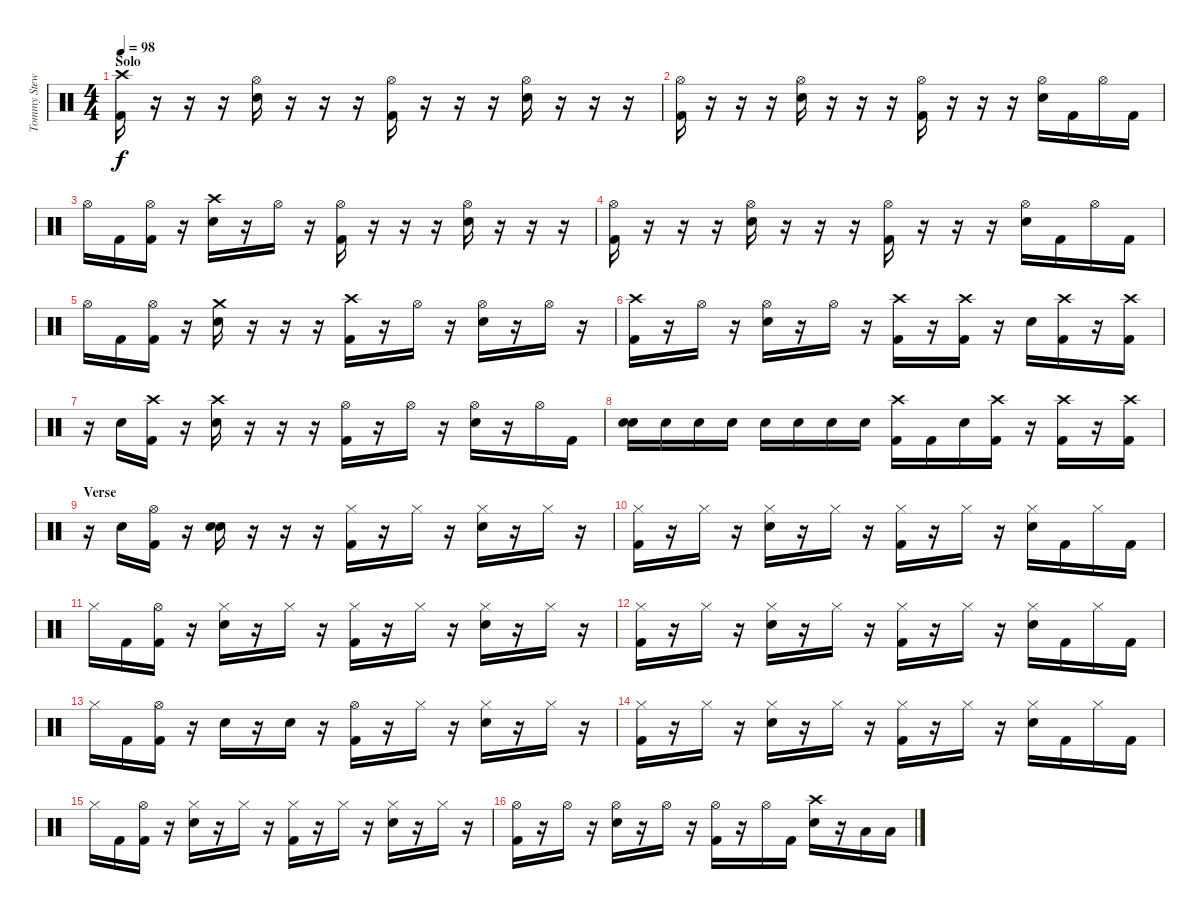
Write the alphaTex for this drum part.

\track ("Tommy Stewart - Drums" "Tommy Stew") {instrument percussion}
\staff {score}
\articulation defaults
\ts (4 4)
\section ("" "Solo")
\tempo 98
\clef neutral
\ks c
("Crash high (hit)" "Kick (hit) 2").16{dy f} r.16 r.16 r.16 ("Hi-Hat (open)" "Snare (hit) 2").16 r.16 r.16 r.16 ("Hi-Hat (open)" "Kick (hit) 2").16 r.16 r.16 r.16 ("Hi-Hat (open)" "Snare (hit) 2").16 r.16 r.16 r.16 |
("Hi-Hat (open)" "Kick (hit) 2").16 r.16 r.16 r.16 ("Hi-Hat (open)" "Snare (hit) 2").16 r.16 r.16 r.16 ("Hi-Hat (open)" "Kick (hit) 2").16 r.16 r.16 r.16 ("Hi-Hat (open)" "Snare (hit) 2").16 "Kick (hit) 2".16 "Hi-Hat (open)".16 "Kick (hit) 2".16 |
"Hi-Hat (open)".16 "Kick (hit) 2".16 ("Hi-Hat (open)" "Kick (hit) 2").16 r.16 ("Crash high (hit)" "Snare (hit) 2").16 r.16 "Hi-Hat (open)".16 r.16 ("Hi-Hat (open)" "Kick (hit) 2").16 r.16 r.16 r.16 ("Hi-Hat (open)" "Snare (hit) 2").16 r.16 r.16 r.16 |
("Hi-Hat (open)" "Kick (hit) 2").16 r.16 r.16 r.16 ("Hi-Hat (open)" "Snare (hit) 2").16 r.16 r.16 r.16 ("Hi-Hat (open)" "Kick (hit) 2").16 r.16 r.16 r.16 ("Hi-Hat (open)" "Snare (hit) 2").16 "Kick (hit) 2".16 "Hi-Hat (open)".16 "Kick (hit) 2".16 |
"Hi-Hat (open)".16 "Kick (hit) 2".16 ("Hi-Hat (open)" "Kick (hit) 2").16 r.16 ("Crash medium (hit)" "Snare (hit) 2").16 r.16 r.16 r.16 ("Crash high (hit)" "Kick (hit) 2").16 r.16 "Hi-Hat (open)".16 r.16 ("Hi-Hat (open)" "Snare (hit) 2").16 r.16 "Hi-Hat (open)".16 r.16 |
("Crash high (hit)" "Kick (hit) 2").16 r.16 "Hi-Hat (open)".16 r.16 ("Hi-Hat (open)" "Snare (hit) 2").16 r.16 "Hi-Hat (open)".16 r.16 ("Crash high (hit)" "Kick (hit) 2").16 r.16 ("Crash high (hit)" "Kick (hit) 2").16 r.16 "Snare (hit) 2".16 ("Crash high (hit)" "Kick (hit) 2").16 r.16 ("Crash high (hit)" "Kick (hit) 2").16 |
r.16 "Snare (hit) 2".16 ("Crash high (hit)" "Kick (hit) 2").16 r.16 ("Crash high (hit)" "Snare (hit) 2").16 r.16 r.16 r.16 ("Hi-Hat (open)" "Kick (hit) 2").16 r.16 "Hi-Hat (open)".16 r.16 ("Hi-Hat (open)" "Snare (hit) 2").16 r.16 "Hi-Hat (open)".16 "Kick (hit) 2".16 |
("Snare (hit) 2" "Snare (hit) 2").16 "Snare (hit) 2".16 "Snare (hit) 2".16 "Snare (hit) 2".16 "Snare (hit) 2".16 "Snare (hit) 2".16 "Snare (hit) 2".16 "Snare (hit) 2".16 ("Crash high (hit)" "Kick (hit) 2").16 "Kick (hit) 2".16 "Snare (hit) 2".16 ("Crash high (hit)" "Kick (hit) 2").16 r.16 ("Crash high (hit)" "Kick (hit) 2").16 r.16 ("Crash high (hit)" "Kick (hit) 2").16 |
\section ("" "Verse")
r.16 "Snare (hit) 2".16 ("Hi-Hat (open)" "Kick (hit) 2").16 r.16 ("Snare (hit) 2" "Snare (hit) 2").16 r.16 r.16 r.16 ("Hi-Hat (closed)" "Kick (hit) 2").16 r.16 "Hi-Hat (closed)".16 r.16 ("Hi-Hat (closed)" "Snare (hit) 2").16 r.16 "Hi-Hat (closed)".16 r.16 |
("Hi-Hat (closed)" "Kick (hit) 2").16 r.16 "Hi-Hat (closed)".16 r.16 ("Hi-Hat (closed)" "Snare (hit) 2").16 r.16 "Hi-Hat (closed)".16 r.16 ("Hi-Hat (closed)" "Kick (hit) 2").16 r.16 "Hi-Hat (closed)".16 r.16 ("Hi-Hat (closed)" "Snare (hit) 2").16 "Kick (hit) 2".16 "Hi-Hat (closed)".16 "Kick (hit) 2".16 |
"Hi-Hat (closed)".16 "Kick (hit) 2".16 ("Hi-Hat (open)" "Kick (hit) 2").16 r.16 ("Hi-Hat (closed)" "Snare (hit) 2").16 r.16 "Hi-Hat (closed)".16 r.16 ("Hi-Hat (closed)" "Kick (hit) 2").16 r.16 "Hi-Hat (closed)".16 r.16 ("Hi-Hat (closed)" "Snare (hit) 2").16 r.16 "Hi-Hat (closed)".16 r.16 |
("Hi-Hat (closed)" "Kick (hit) 2").16 r.16 "Hi-Hat (closed)".16 r.16 ("Hi-Hat (closed)" "Snare (hit) 2").16 r.16 "Hi-Hat (closed)".16 r.16 ("Hi-Hat (closed)" "Kick (hit) 2").16 r.16 "Hi-Hat (closed)".16 r.16 ("Hi-Hat (closed)" "Snare (hit) 2").16 "Kick (hit) 2".16 "Hi-Hat (closed)".16 "Kick (hit) 2".16 |
"Hi-Hat (closed)".16 "Kick (hit) 2".16 ("Hi-Hat (open)" "Kick (hit) 2").16 r.16 "Snare (hit) 2".16 r.16 "Snare (hit) 2".16 r.16 ("Hi-Hat (open)" "Kick (hit) 2").16 r.16 "Hi-Hat (closed)".16 r.16 ("Hi-Hat (closed)" "Snare (hit) 2").16 r.16 "Hi-Hat (closed)".16 r.16 |
("Hi-Hat (closed)" "Kick (hit) 2").16 r.16 "Hi-Hat (closed)".16 r.16 ("Hi-Hat (closed)" "Snare (hit) 2").16 r.16 "Hi-Hat (closed)".16 r.16 ("Hi-Hat (closed)" "Kick (hit) 2").16 r.16 "Hi-Hat (closed)".16 r.16 ("Hi-Hat (closed)" "Snare (hit) 2").16 "Kick (hit) 2".16 "Hi-Hat (closed)".16 "Kick (hit) 2".16 |
"Hi-Hat (closed)".16 "Kick (hit) 2".16 ("Hi-Hat (open)" "Kick (hit) 2").16 r.16 ("Hi-Hat (closed)" "Snare (hit) 2").16 r.16 "Hi-Hat (closed)".16 r.16 ("Hi-Hat (closed)" "Kick (hit) 2").16 r.16 "Hi-Hat (closed)".16 r.16 ("Hi-Hat (closed)" "Snare (hit) 2").16 r.16 "Hi-Hat (closed)".16 r.16 |
("Hi-Hat (open)" "Kick (hit) 2").16 r.16 "Hi-Hat (open)".16 r.16 ("Hi-Hat (open)" "Snare (hit) 2").16 r.16 "Hi-Hat (open)".16 r.16 ("Hi-Hat (open)" "Kick (hit) 2").16 r.16 "Hi-Hat (open)".16 "Kick (hit) 2".16 ("Crash high (hit)" "Snare (hit) 2").16 r.16 "Low Tom (hit)".16 "Low Tom (hit)".16
